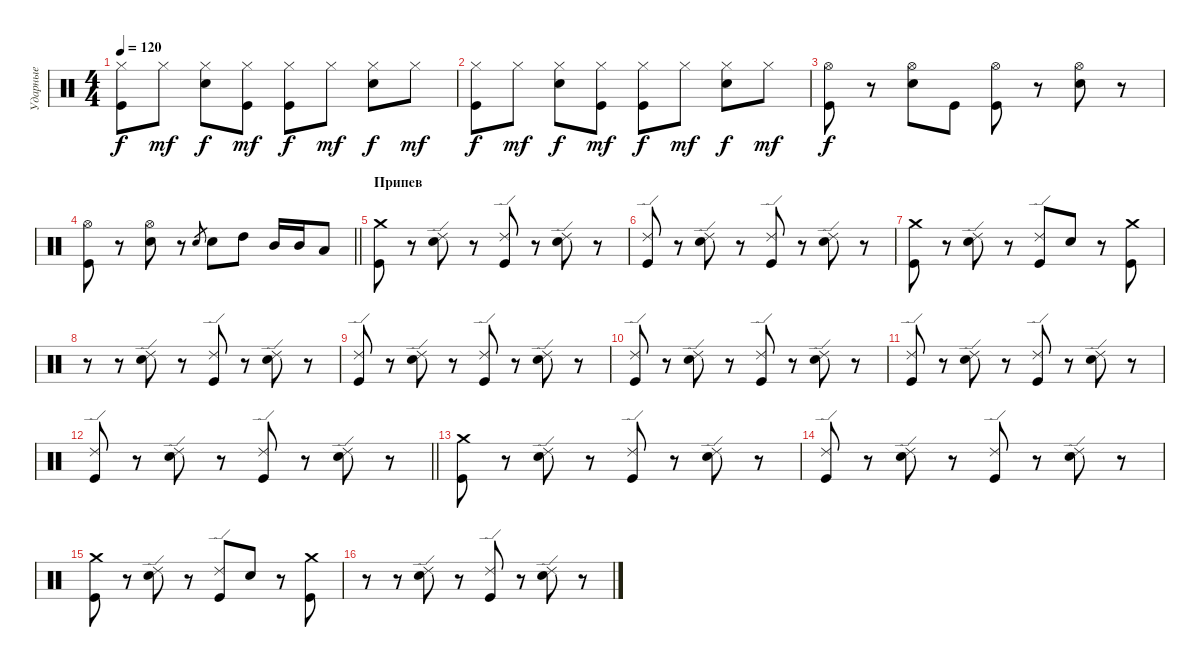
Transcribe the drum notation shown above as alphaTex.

\track ("Ударные" "Ударные") {instrument percussion}
\staff {score}
\articulation defaults
\ts (4 4)
\tempo 120
\clef neutral
\ks c
("Hi-Hat (closed)" "Kick (hit)").8{dy f} "Hi-Hat (closed)".8{dy mf} ("Hi-Hat (closed)" "Electric Snare (hit)").8{dy f} ("Hi-Hat (closed)" "Kick (hit)").8{dy mf} ("Hi-Hat (closed)" "Kick (hit)").8{dy f} "Hi-Hat (closed)".8{dy mf} ("Hi-Hat (closed)" "Electric Snare (hit)").8{dy f} "Hi-Hat (closed)".8{dy mf} |
("Hi-Hat (closed)" "Kick (hit)").8{dy f} "Hi-Hat (closed)".8{dy mf} ("Hi-Hat (closed)" "Electric Snare (hit)").8{dy f} ("Hi-Hat (closed)" "Kick (hit)").8{dy mf} ("Hi-Hat (closed)" "Kick (hit)").8{dy f} "Hi-Hat (closed)".8{dy mf} ("Hi-Hat (closed)" "Electric Snare (hit)").8{dy f} "Hi-Hat (closed)".8{dy mf} |
("Hi-Hat (open)" "Kick (hit)").8{dy f} r.8 ("Hi-Hat (open)" "Electric Snare (hit)").8 "Kick (hit)".8 ("Hi-Hat (open)" "Kick (hit)").8 r.8 ("Hi-Hat (open)" "Electric Snare (hit)").8 r.8 |
\barLineRight lightlight
("Hi-Hat (open)" "Kick (hit)").8 r.8 ("Hi-Hat (open)" "Electric Snare (hit)").8 r.8 "Electric Snare (hit)".8{gr} "Electric Snare (hit)".8 "High Tom (hit)".8 "Mid Tom (hit)".16 "Mid Tom (hit)".16 "Low Tom (hit)".8 |
\section ("" "Припев")
("Crash medium (hit)" "Kick (hit)").8 r.8 ("Ride (edge) 2" "Electric Snare (hit)").8 r.8 ("Ride (edge) 2" "Kick (hit)").8 r.8 ("Ride (edge) 2" "Electric Snare (hit)").8 r.8 |
("Ride (edge) 2" "Kick (hit)").8 r.8 ("Ride (edge) 2" "Electric Snare (hit)").8 r.8 ("Ride (edge) 2" "Kick (hit)").8 r.8 ("Ride (edge) 2" "Electric Snare (hit)").8 r.8 |
("Crash medium (hit)" "Kick (hit)").8 r.8 ("Ride (edge) 2" "Electric Snare (hit)").8 r.8 ("Ride (edge) 2" "Kick (hit)").8 "Electric Snare (hit)".8 r.8 ("Crash medium (hit)" "Kick (hit)").8 |
r.8 r.8 ("Ride (edge) 2" "Electric Snare (hit)").8 r.8 ("Ride (edge) 2" "Kick (hit)").8 r.8 ("Ride (edge) 2" "Electric Snare (hit)").8 r.8 |
("Ride (edge) 2" "Kick (hit)").8 r.8 ("Ride (edge) 2" "Electric Snare (hit)").8 r.8 ("Ride (edge) 2" "Kick (hit)").8 r.8 ("Ride (edge) 2" "Electric Snare (hit)").8 r.8 |
("Ride (edge) 2" "Kick (hit)").8 r.8 ("Ride (edge) 2" "Electric Snare (hit)").8 r.8 ("Ride (edge) 2" "Kick (hit)").8 r.8 ("Ride (edge) 2" "Electric Snare (hit)").8 r.8 |
("Ride (edge) 2" "Kick (hit)").8 r.8 ("Ride (edge) 2" "Electric Snare (hit)").8 r.8 ("Ride (edge) 2" "Kick (hit)").8 r.8 ("Ride (edge) 2" "Electric Snare (hit)").8 r.8 |
\barLineRight lightlight
("Ride (edge) 2" "Kick (hit)").8 r.8 ("Ride (edge) 2" "Electric Snare (hit)").8 r.8 ("Ride (edge) 2" "Kick (hit)").8 r.8 ("Ride (edge) 2" "Electric Snare (hit)").8 r.8 |
\section ("" " ")
("Crash medium (hit)" "Kick (hit)").8 r.8 ("Ride (edge) 2" "Electric Snare (hit)").8 r.8 ("Ride (edge) 2" "Kick (hit)").8 r.8 ("Ride (edge) 2" "Electric Snare (hit)").8 r.8 |
("Ride (edge) 2" "Kick (hit)").8 r.8 ("Ride (edge) 2" "Electric Snare (hit)").8 r.8 ("Ride (edge) 2" "Kick (hit)").8 r.8 ("Ride (edge) 2" "Electric Snare (hit)").8 r.8 |
("Crash medium (hit)" "Kick (hit)").8 r.8 ("Ride (edge) 2" "Electric Snare (hit)").8 r.8 ("Ride (edge) 2" "Kick (hit)").8 "Electric Snare (hit)".8 r.8 ("Crash medium (hit)" "Kick (hit)").8 |
r.8 r.8 ("Ride (edge) 2" "Electric Snare (hit)").8 r.8 ("Ride (edge) 2" "Kick (hit)").8 r.8 ("Ride (edge) 2" "Electric Snare (hit)").8 r.8
